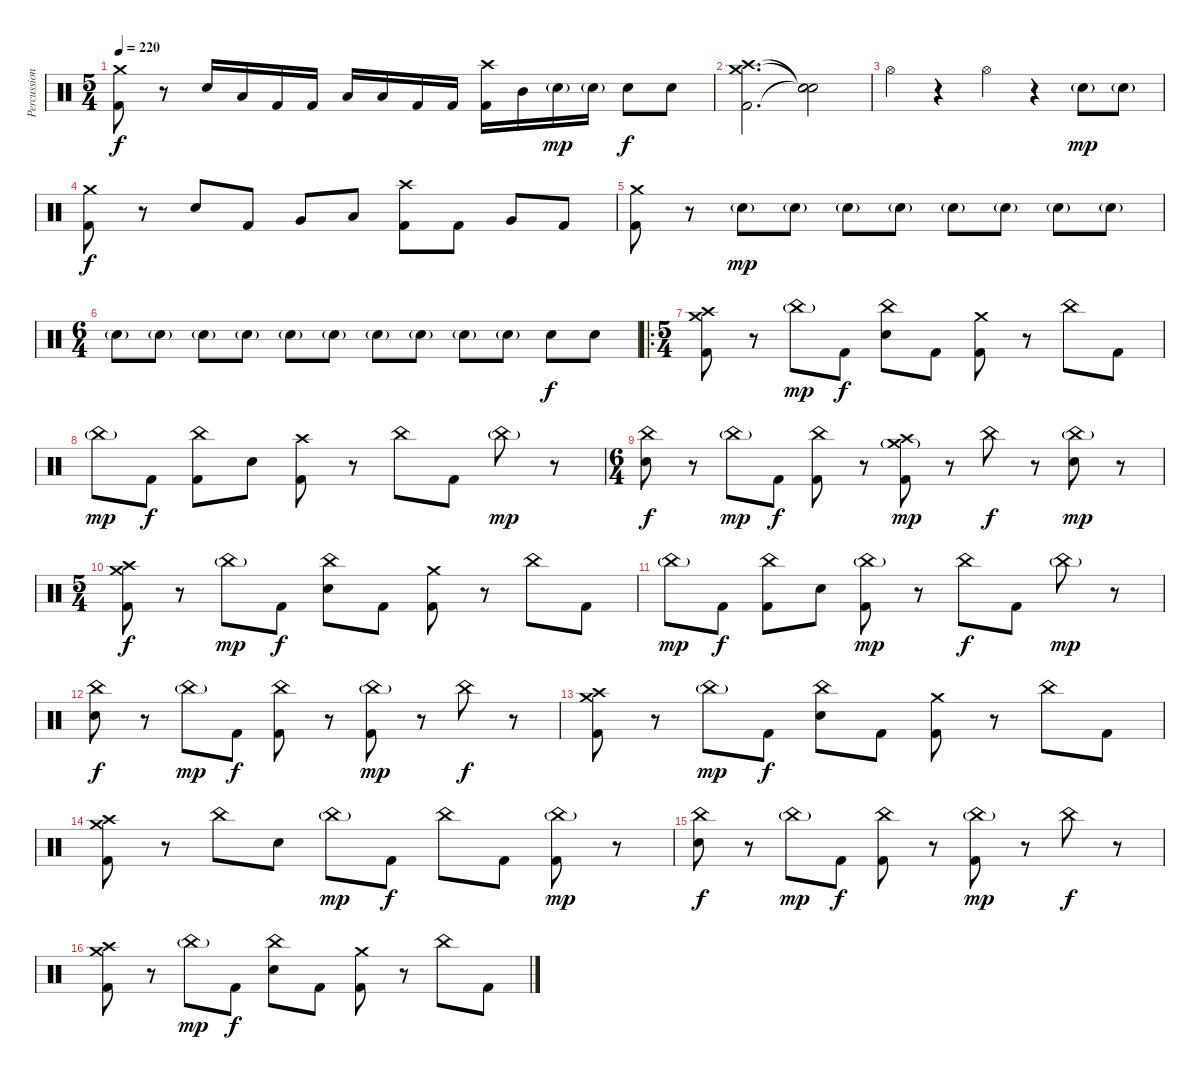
\track ("Percussion" "Percussion") {instrument percussion}
\staff {score}
\articulation defaults
\ts (5 4)
\tempo 220
\clef neutral
\ks c
("Crash medium (hit)" "Kick (hit) 2").8{dy f} r.8 "Electric Snare (hit)".16 "Low Floor Tom (hit)".16 "Kick (hit) 2".16 "Kick (hit) 2".16 "Low Floor Tom (hit)".16 "Low Tom (hit)".16 "Kick (hit) 2".16 "Kick (hit) 2".16 ("Crash high (hit)" "Kick (hit) 2").16 "Mid Tom (hit)".16 "Electric Snare (hit)"{g}.16{dy mp} "Electric Snare (hit)"{g}.16 "Electric Snare (hit)".8{dy f} "Electric Snare (hit)".8 |
("Crash medium (hit)" "Crash high (hit)" "Kick (hit) 2").2{d} ("Snare (hit)"{t} "Snare (hit)"{t} "Snare (hit)"{t}).2 |
"Hi-Hat (open)".4 r.4 "Hi-Hat (open)".4 r.4 "Electric Snare (hit)"{g}.8{dy mp} "Electric Snare (hit)"{g}.8 |
("Crash medium (hit)" "Kick (hit) 2").8{dy f} r.8 "Electric Snare (hit)".8 "Kick (hit) 2".8 "Very Low Tom (hit)".8 "Low Floor Tom (hit)".8 ("Crash high (hit)" "Kick (hit) 2").8 "Kick (hit) 2".8 "Very Low Tom (hit)".8 "Kick (hit) 2".8 |
("Crash medium (hit)" "Kick (hit) 2").8 r.8 "Electric Snare (hit)"{g}.8{dy mp} "Electric Snare (hit)"{g}.8 "Electric Snare (hit)"{g}.8 "Electric Snare (hit)"{g}.8 "Electric Snare (hit)"{g}.8 "Electric Snare (hit)"{g}.8 "Electric Snare (hit)"{g}.8 "Electric Snare (hit)"{g}.8 |
\ts (6 4)
"Electric Snare (hit)"{g}.8 "Electric Snare (hit)"{g}.8 "Electric Snare (hit)"{g}.8 "Electric Snare (hit)"{g}.8 "Electric Snare (hit)"{g}.8 "Electric Snare (hit)"{g}.8 "Electric Snare (hit)"{g}.8 "Electric Snare (hit)"{g}.8 "Electric Snare (hit)"{g}.8 "Electric Snare (hit)"{g}.8 "Electric Snare (hit)".8{dy f} "Electric Snare (hit)".8 |
\ro
\ts (5 4)
("Crash high (hit)" "Crash medium (hit)" "Kick (hit) 2").8 r.8 "China (hit)"{g}.8{dy mp} "Kick (hit) 2".8{dy f} ("China (hit)" "Electric Snare (hit)").8 "Kick (hit) 2".8 ("Crash medium (hit)" "Kick (hit) 2").8 r.8 "China (hit)".8 "Kick (hit) 2".8 |
"China (hit)"{g}.8{dy mp} "Kick (hit) 2".8{dy f} ("China (hit)" "Kick (hit) 2").8 "Electric Snare (hit)".8 ("Crash high (hit)" "Kick (hit) 2").8 r.8 "China (hit)".8 "Kick (hit) 2".8 "China (hit)"{g}.8{dy mp} r.8 |
\ts (6 4)
("China (hit)" "Electric Snare (hit)").8{dy f} r.8 "China (hit)"{g}.8{dy mp} "Kick (hit) 2".8{dy f} ("China (hit)" "Kick (hit) 2").8 r.8 ("Crash medium (hit)"{g} "Crash high (hit)" "Kick (hit) 2").8{dy mp} r.8 "China (hit)".8{dy f} r.8 ("China (hit)"{g} "Electric Snare (hit)").8{dy mp} r.8 |
\ts (5 4)
("Crash high (hit)" "Crash medium (hit)" "Kick (hit) 2").8{dy f} r.8 "China (hit)"{g}.8{dy mp} "Kick (hit) 2".8{dy f} ("China (hit)" "Electric Snare (hit)").8 "Kick (hit) 2".8 ("Crash medium (hit)" "Kick (hit) 2").8 r.8 "China (hit)".8 "Kick (hit) 2".8 |
"China (hit)"{g}.8{dy mp} "Kick (hit) 2".8{dy f} ("China (hit)" "Kick (hit) 2").8 "Electric Snare (hit)".8 ("China (hit)"{g} "Kick (hit) 2").8{dy mp} r.8 "China (hit)".8{dy f} "Kick (hit) 2".8 "China (hit)"{g}.8{dy mp} r.8 |
("China (hit)" "Electric Snare (hit)").8{dy f} r.8 "China (hit)"{g}.8{dy mp} "Kick (hit) 2".8{dy f} ("China (hit)" "Kick (hit) 2").8 r.8 ("China (hit)"{g} "Kick (hit) 2").8{dy mp} r.8 "China (hit)".8{dy f} r.8 |
("Crash high (hit)" "Crash medium (hit)" "Kick (hit) 2").8 r.8 "China (hit)"{g}.8{dy mp} "Kick (hit) 2".8{dy f} ("China (hit)" "Electric Snare (hit)").8 "Kick (hit) 2".8 ("Crash medium (hit)" "Kick (hit) 2").8 r.8 "China (hit)".8 "Kick (hit) 2".8 |
("Crash medium (hit)" "Crash high (hit)" "Kick (hit) 2").8 r.8 "China (hit)".8 "Electric Snare (hit)".8 "China (hit)"{g}.8{dy mp} "Kick (hit) 2".8{dy f} "China (hit)".8 "Kick (hit) 2".8 ("China (hit)"{g} "Kick (hit) 2").8{dy mp} r.8 |
("China (hit)" "Electric Snare (hit)").8{dy f} r.8 "China (hit)"{g}.8{dy mp} "Kick (hit) 2".8{dy f} ("China (hit)" "Kick (hit) 2").8 r.8 ("China (hit)"{g} "Kick (hit) 2").8{dy mp} r.8 "China (hit)".8{dy f} r.8 |
("Crash high (hit)" "Crash medium (hit)" "Kick (hit) 2").8 r.8 "China (hit)"{g}.8{dy mp} "Kick (hit) 2".8{dy f} ("China (hit)" "Electric Snare (hit)").8 "Kick (hit) 2".8 ("Crash medium (hit)" "Kick (hit) 2").8 r.8 "China (hit)".8 "Kick (hit) 2".8
